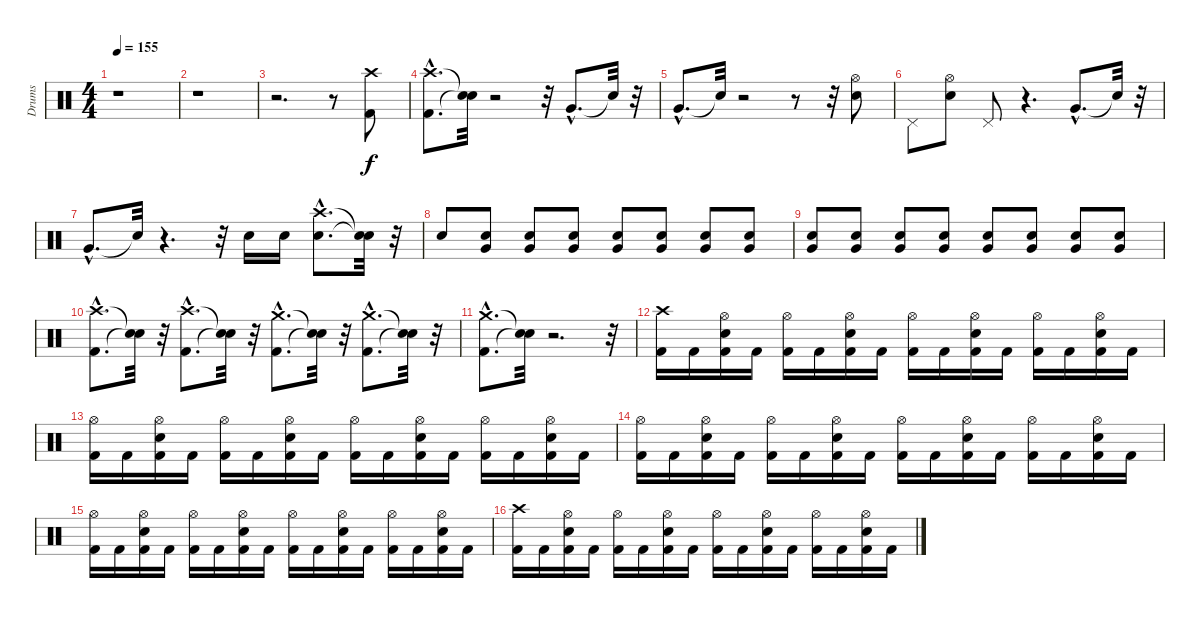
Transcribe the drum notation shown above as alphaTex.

\track ("Drums" "Drums") {instrument percussion}
\staff {score}
\articulation defaults
\ts (4 4)
\tempo 155
\clef neutral
\ks c
r.1{dy f} |
r.1 |
r.2{d} r.8 ("Kick (hit) 2" "Crash high (hit)").8{volume 16} |
("Kick (hit) 2"{hac} "Crash high (hit)"{hac}).8{d} ("Snare (hit)"{t} "Snare (hit)"{t}).32 r.2 r.32 "Very Low Tom (hit)"{hac}.8{d} "Snare (hit)"{t}.32 r.32 |
"Very Low Tom (hit)"{hac}.8{d} "Snare (hit)"{t}.32 r.2 r.8 r.32 ("Snare (hit) 2" "Hi-Hat (open)").8 |
"Pedal Hi-Hat (hit)".8 ("Snare (hit) 2" "Hi-Hat (open)").8 "Pedal Hi-Hat (hit)".8 r.4{d} "Very Low Tom (hit)"{hac}.8{d} "Snare (hit)"{t}.32 r.32 |
"Very Low Tom (hit)"{hac}.8{d} "Snare (hit)"{t}.32 r.4{d} r.32 "Snare (hit) 2".16 "Snare (hit) 2".16 ("Snare (hit) 2"{hac} "Crash high (hit)"{hac}).8{d} ("Snare (hit)"{t} "Snare (hit)"{t}).32 r.32 |
"Snare (hit) 2".8 ("Snare (hit) 2" "Very Low Tom (hit)").8 ("Snare (hit) 2" "Very Low Tom (hit)").8 ("Snare (hit) 2" "Very Low Tom (hit)").8 ("Snare (hit) 2" "Very Low Tom (hit)").8 ("Snare (hit) 2" "Very Low Tom (hit)").8 ("Snare (hit) 2" "Very Low Tom (hit)").8 ("Snare (hit) 2" "Very Low Tom (hit)").8 |
("Snare (hit) 2" "Very Low Tom (hit)").8 ("Snare (hit) 2" "Very Low Tom (hit)").8 ("Snare (hit) 2" "Very Low Tom (hit)").8 ("Snare (hit) 2" "Very Low Tom (hit)").8 ("Snare (hit) 2" "Very Low Tom (hit)").8 ("Snare (hit) 2" "Very Low Tom (hit)").8 ("Snare (hit) 2" "Very Low Tom (hit)").8 ("Snare (hit) 2" "Very Low Tom (hit)").8 |
("Kick (hit) 2"{hac} "Crash high (hit)"{hac}).8{d} ("Snare (hit)"{t} "Snare (hit)"{t}).32 r.32 ("Kick (hit) 2"{hac} "Crash high (hit)"{hac}).8{d} ("Snare (hit)"{t} "Snare (hit)"{t}).32 r.32 ("Kick (hit) 2"{hac} "Crash medium (hit)"{hac}).8{d} ("Snare (hit)"{t} "Snare (hit)"{t}).32 r.32 ("Kick (hit) 2"{hac} "Crash medium (hit)"{hac}).8{d} ("Snare (hit)"{t} "Snare (hit)"{t}).32 r.32 |
("Kick (hit) 2"{hac} "Crash medium (hit)"{hac}).8{d} ("Snare (hit)"{t} "Snare (hit)"{t}).32 r.2{d} r.32 |
("Kick (hit) 2" "Crash high (hit)").16 "Kick (hit) 2".16 ("Kick (hit) 2" "Hi-Hat (open)" "Snare (hit) 2").16 "Kick (hit) 2".16 ("Kick (hit) 2" "Hi-Hat (open)").16 "Kick (hit) 2".16 ("Kick (hit) 2" "Hi-Hat (open)" "Snare (hit) 2").16 "Kick (hit) 2".16 ("Kick (hit) 2" "Hi-Hat (open)").16 "Kick (hit) 2".16 ("Kick (hit) 2" "Hi-Hat (open)" "Snare (hit) 2").16 "Kick (hit) 2".16 ("Kick (hit) 2" "Hi-Hat (open)").16 "Kick (hit) 2".16 ("Kick (hit) 2" "Hi-Hat (open)" "Snare (hit) 2").16 "Kick (hit) 2".16 |
("Kick (hit) 2" "Hi-Hat (open)").16 "Kick (hit) 2".16 ("Kick (hit) 2" "Hi-Hat (open)" "Snare (hit) 2").16 "Kick (hit) 2".16 ("Kick (hit) 2" "Hi-Hat (open)").16 "Kick (hit) 2".16 ("Kick (hit) 2" "Hi-Hat (open)" "Snare (hit) 2").16 "Kick (hit) 2".16 ("Kick (hit) 2" "Hi-Hat (open)").16 "Kick (hit) 2".16 ("Kick (hit) 2" "Hi-Hat (open)" "Snare (hit) 2").16 "Kick (hit) 2".16 ("Kick (hit) 2" "Hi-Hat (open)").16 "Kick (hit) 2".16 ("Kick (hit) 2" "Hi-Hat (open)" "Snare (hit) 2").16 "Kick (hit) 2".16 |
("Kick (hit) 2" "Hi-Hat (open)").16 "Kick (hit) 2".16 ("Kick (hit) 2" "Hi-Hat (open)" "Snare (hit) 2").16 "Kick (hit) 2".16 ("Kick (hit) 2" "Hi-Hat (open)").16 "Kick (hit) 2".16 ("Kick (hit) 2" "Hi-Hat (open)" "Snare (hit) 2").16 "Kick (hit) 2".16 ("Kick (hit) 2" "Hi-Hat (open)").16 "Kick (hit) 2".16 ("Kick (hit) 2" "Hi-Hat (open)" "Snare (hit) 2").16 "Kick (hit) 2".16 ("Kick (hit) 2" "Hi-Hat (open)").16 "Kick (hit) 2".16 ("Kick (hit) 2" "Hi-Hat (open)" "Snare (hit) 2").16 "Kick (hit) 2".16 |
("Kick (hit) 2" "Hi-Hat (open)").16 "Kick (hit) 2".16 ("Kick (hit) 2" "Hi-Hat (open)" "Snare (hit) 2").16 "Kick (hit) 2".16 ("Kick (hit) 2" "Hi-Hat (open)").16 "Kick (hit) 2".16 ("Kick (hit) 2" "Hi-Hat (open)" "Snare (hit) 2").16 "Kick (hit) 2".16 ("Kick (hit) 2" "Hi-Hat (open)").16 "Kick (hit) 2".16 ("Kick (hit) 2" "Hi-Hat (open)" "Snare (hit) 2").16 "Kick (hit) 2".16 ("Kick (hit) 2" "Hi-Hat (open)").16 "Kick (hit) 2".16 ("Kick (hit) 2" "Hi-Hat (open)" "Snare (hit) 2").16 "Kick (hit) 2".16 |
("Kick (hit) 2" "Crash high (hit)").16 "Kick (hit) 2".16 ("Kick (hit) 2" "Hi-Hat (open)" "Snare (hit) 2").16 "Kick (hit) 2".16 ("Kick (hit) 2" "Hi-Hat (open)").16 "Kick (hit) 2".16 ("Kick (hit) 2" "Hi-Hat (open)" "Snare (hit) 2").16 "Kick (hit) 2".16 ("Kick (hit) 2" "Hi-Hat (open)").16 "Kick (hit) 2".16 ("Kick (hit) 2" "Hi-Hat (open)" "Snare (hit) 2").16 "Kick (hit) 2".16 ("Kick (hit) 2" "Hi-Hat (open)").16 "Kick (hit) 2".16 ("Kick (hit) 2" "Hi-Hat (open)" "Snare (hit) 2").16 "Kick (hit) 2".16
